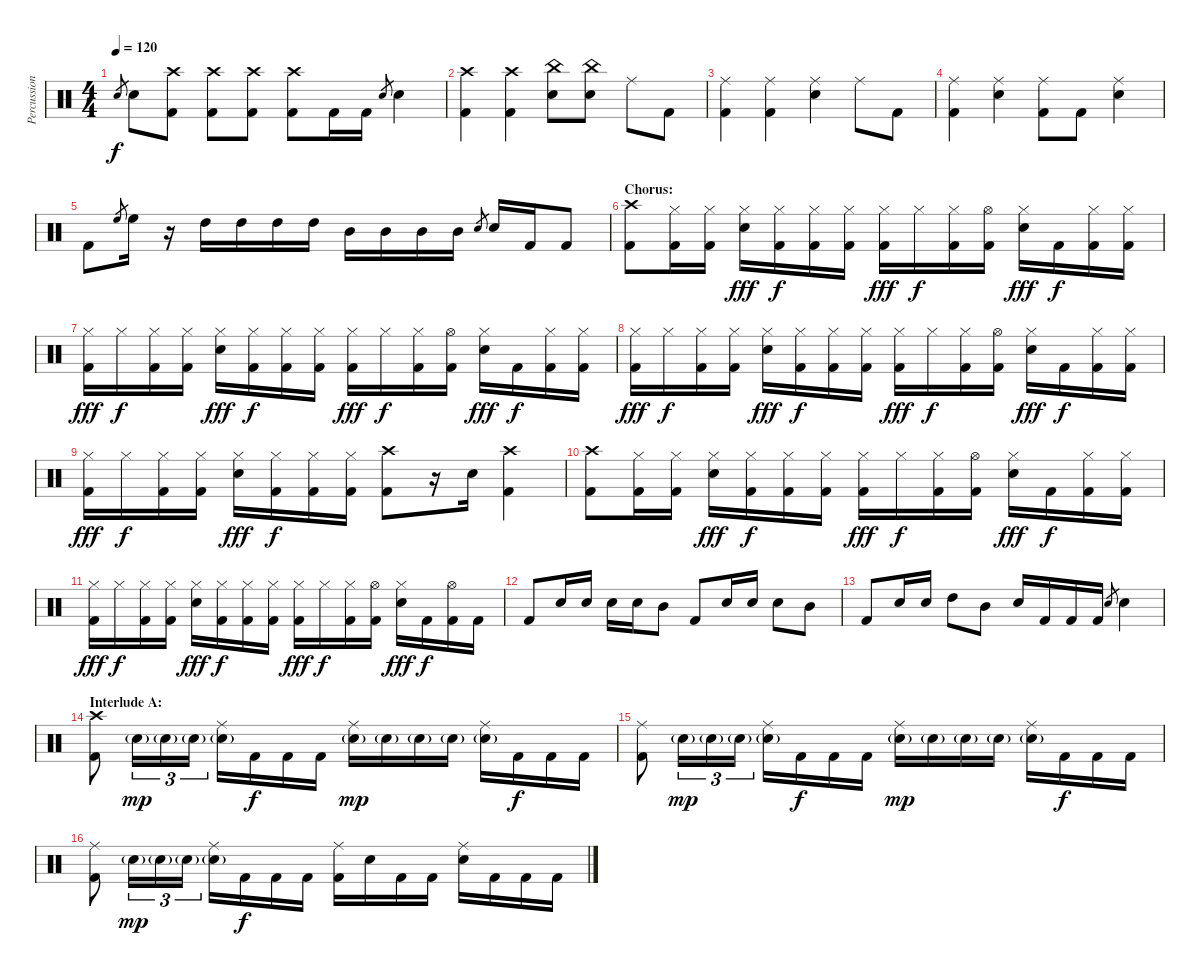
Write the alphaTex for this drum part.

\track ("Percussion" "Percussion") {instrument percussion}
\staff {score}
\articulation defaults
\ts (4 4)
\tempo 120
\clef neutral
\ks c "Electric Snare (hit)".8{gr dy f} "Electric Snare (hit)".8
("Crash high (hit)" "Kick (hit) 2").8 ("Crash high (hit)" "Kick (hit) 2").8 ("Crash high (hit)" "Kick (hit) 2").8 ("Crash high (hit)" "Kick (hit) 2").8 "Kick (hit) 2".16 "Kick (hit) 2".16 "Electric Snare (hit)".8{gr} "Electric Snare (hit)".4 |
("Crash high (hit)" "Kick (hit) 2").4 ("Crash high (hit)" "Kick (hit) 2").4 ("China (hit)" "Electric Snare (hit)").8 ("China (hit)" "Electric Snare (hit)").8 "Ride (middle)".8 "Kick (hit) 2".8 |
("Ride (middle)" "Kick (hit) 2").4 ("Ride (middle)" "Kick (hit) 2").4 ("Ride (middle)" "Electric Snare (hit)").4 "Ride (middle)".8 "Kick (hit) 2".8 |
("Ride (middle)" "Kick (hit) 2").4 ("Ride (middle)" "Electric Snare (hit)").4 ("Ride (middle)" "Kick (hit) 2").8 "Kick (hit) 2".8 ("Ride (middle)" "Electric Snare (hit)").4 |
"Kick (hit) 2".8 "High Floor Tom (hit)".8{gr} "High Floor Tom (hit)".16 r.16 "High Tom (hit)".16 "High Tom (hit)".16 "High Tom (hit)".16 "High Tom (hit)".16 "Mid Tom (hit)".16 "Mid Tom (hit)".16 "Mid Tom (hit)".16 "Mid Tom (hit)".16 "Electric Snare (hit)".8{gr} "Electric Snare (hit)".16 "Kick (hit) 2".16 "Kick (hit) 2".8 |
\section ("" "Chorus:")
("Crash high (hit)" "Kick (hit) 2").8 ("Hi-Hat (closed)" "Kick (hit) 2").16 ("Hi-Hat (closed)" "Kick (hit) 2").16 ("Hi-Hat (closed)" "Electric Snare (hit)").16{dy fff} ("Hi-Hat (closed)" "Kick (hit) 2").16{dy f} ("Hi-Hat (closed)" "Kick (hit) 2").16 ("Hi-Hat (closed)" "Kick (hit) 2").16 ("Hi-Hat (closed)" "Kick (hit) 2").16{dy fff} "Hi-Hat (closed)".16{dy f} ("Hi-Hat (closed)" "Kick (hit) 2").16 ("Hi-Hat (open)" "Kick (hit) 2").16 ("Hi-Hat (closed)" "Electric Snare (hit)").16{dy fff} "Kick (hit) 2".16{dy f} ("Hi-Hat (closed)" "Kick (hit) 2").16 ("Hi-Hat (closed)" "Kick (hit) 2").16 |
("Hi-Hat (closed)" "Kick (hit) 2").16{dy fff} "Hi-Hat (closed)".16{dy f} ("Hi-Hat (closed)" "Kick (hit) 2").16 ("Hi-Hat (closed)" "Kick (hit) 2").16 ("Hi-Hat (closed)" "Electric Snare (hit)").16{dy fff} ("Hi-Hat (closed)" "Kick (hit) 2").16{dy f} ("Hi-Hat (closed)" "Kick (hit) 2").16 ("Hi-Hat (closed)" "Kick (hit) 2").16 ("Hi-Hat (closed)" "Kick (hit) 2").16{dy fff} "Hi-Hat (closed)".16{dy f} ("Hi-Hat (closed)" "Kick (hit) 2").16 ("Hi-Hat (open)" "Kick (hit) 2").16 ("Hi-Hat (closed)" "Electric Snare (hit)").16{dy fff} "Kick (hit) 2".16{dy f} ("Hi-Hat (closed)" "Kick (hit) 2").16 ("Hi-Hat (closed)" "Kick (hit) 2").16 |
("Hi-Hat (closed)" "Kick (hit) 2").16{dy fff} "Hi-Hat (closed)".16{dy f} ("Hi-Hat (closed)" "Kick (hit) 2").16 ("Hi-Hat (closed)" "Kick (hit) 2").16 ("Hi-Hat (closed)" "Electric Snare (hit)").16{dy fff} ("Hi-Hat (closed)" "Kick (hit) 2").16{dy f} ("Hi-Hat (closed)" "Kick (hit) 2").16 ("Hi-Hat (closed)" "Kick (hit) 2").16 ("Hi-Hat (closed)" "Kick (hit) 2").16{dy fff} "Hi-Hat (closed)".16{dy f} ("Hi-Hat (closed)" "Kick (hit) 2").16 ("Hi-Hat (open)" "Kick (hit) 2").16 ("Hi-Hat (closed)" "Electric Snare (hit)").16{dy fff} "Kick (hit) 2".16{dy f} ("Hi-Hat (closed)" "Kick (hit) 2").16 ("Hi-Hat (closed)" "Kick (hit) 2").16 |
("Hi-Hat (closed)" "Kick (hit) 2").16{dy fff} "Hi-Hat (closed)".16{dy f} ("Hi-Hat (closed)" "Kick (hit) 2").16 ("Hi-Hat (closed)" "Kick (hit) 2").16 ("Hi-Hat (closed)" "Electric Snare (hit)").16{dy fff} ("Hi-Hat (closed)" "Kick (hit) 2").16{dy f} ("Hi-Hat (closed)" "Kick (hit) 2").16 ("Hi-Hat (closed)" "Kick (hit) 2").16 ("Crash high (hit)" "Kick (hit) 2").8 r.16 "Electric Snare (hit)".16 ("Crash high (hit)" "Kick (hit) 2").4 |
("Crash high (hit)" "Kick (hit) 2").8 ("Hi-Hat (closed)" "Kick (hit) 2").16 ("Hi-Hat (closed)" "Kick (hit) 2").16 ("Hi-Hat (closed)" "Electric Snare (hit)").16{dy fff} ("Hi-Hat (closed)" "Kick (hit) 2").16{dy f} ("Hi-Hat (closed)" "Kick (hit) 2").16 ("Hi-Hat (closed)" "Kick (hit) 2").16 ("Hi-Hat (closed)" "Kick (hit) 2").16{dy fff} "Hi-Hat (closed)".16{dy f} ("Hi-Hat (closed)" "Kick (hit) 2").16 ("Hi-Hat (open)" "Kick (hit) 2").16 ("Hi-Hat (closed)" "Electric Snare (hit)").16{dy fff} "Kick (hit) 2".16{dy f} ("Hi-Hat (closed)" "Kick (hit) 2").16 ("Hi-Hat (closed)" "Kick (hit) 2").16 |
("Hi-Hat (closed)" "Kick (hit) 2").16{dy fff} "Hi-Hat (closed)".16{dy f} ("Hi-Hat (closed)" "Kick (hit) 2").16 ("Hi-Hat (closed)" "Kick (hit) 2").16 ("Hi-Hat (closed)" "Electric Snare (hit)").16{dy fff} ("Hi-Hat (closed)" "Kick (hit) 2").16{dy f} ("Hi-Hat (closed)" "Kick (hit) 2").16 ("Hi-Hat (closed)" "Kick (hit) 2").16 ("Hi-Hat (closed)" "Kick (hit) 2").16{dy fff} "Hi-Hat (closed)".16{dy f} ("Hi-Hat (closed)" "Kick (hit) 2").16 ("Hi-Hat (open)" "Kick (hit) 2").16 ("Hi-Hat (closed)" "Electric Snare (hit)").16{dy fff} "Kick (hit) 2".16{dy f} ("Hi-Hat (open)" "Kick (hit) 2").16 "Kick (hit) 2".16 |
"Kick (hit) 2".8 "Electric Snare (hit)".16 "Electric Snare (hit)".16 "Electric Snare (hit)".16 "Electric Snare (hit)".16 "Mid Tom (hit)".8 "Kick (hit) 2".8 "Electric Snare (hit)".16 "Electric Snare (hit)".16 "Electric Snare (hit)".8 "Mid Tom (hit)".8 |
"Kick (hit) 2".8 "Electric Snare (hit)".16 "Electric Snare (hit)".16 "High Tom (hit)".8 "Mid Tom (hit)".8 "Electric Snare (hit)".16 "Kick (hit) 2".16 "Kick (hit) 2".16 "Kick (hit) 2".16 "Electric Snare (hit)".8{gr} "Electric Snare (hit)".4 |
\section ("" "Interlude A:")
("Crash high (hit)" "Kick (hit) 2").8 "Electric Snare (hit)"{g}.16{tu (3 2) dy mp} "Electric Snare (hit)"{g}.16{tu (3 2)} "Electric Snare (hit)"{g}.16{tu (3 2)} ("Ride (middle)" "Electric Snare (hit)"{g}).16 "Kick (hit) 2".16{dy f} "Kick (hit) 2".16 "Kick (hit) 2".16 ("Ride (middle)" "Electric Snare (hit)"{g}).16{dy mp} "Electric Snare (hit)"{g}.16 "Electric Snare (hit)"{g}.16 "Electric Snare (hit)"{g}.16 ("Ride (middle)" "Electric Snare (hit)"{g}).16 "Kick (hit) 2".16{dy f} "Kick (hit) 2".16 "Kick (hit) 2".16 |
("Ride (middle)" "Kick (hit) 2").8 "Electric Snare (hit)"{g}.16{tu (3 2) dy mp} "Electric Snare (hit)"{g}.16{tu (3 2)} "Electric Snare (hit)"{g}.16{tu (3 2)} ("Ride (middle)" "Electric Snare (hit)"{g}).16 "Kick (hit) 2".16{dy f} "Kick (hit) 2".16 "Kick (hit) 2".16 ("Ride (middle)" "Electric Snare (hit)"{g}).16{dy mp} "Electric Snare (hit)"{g}.16 "Electric Snare (hit)"{g}.16 "Electric Snare (hit)"{g}.16 ("Ride (middle)" "Electric Snare (hit)"{g}).16 "Kick (hit) 2".16{dy f} "Kick (hit) 2".16 "Kick (hit) 2".16 |
("Ride (middle)" "Kick (hit) 2").8 "Electric Snare (hit)"{g}.16{tu (3 2) dy mp} "Electric Snare (hit)"{g}.16{tu (3 2)} "Electric Snare (hit)"{g}.16{tu (3 2)} ("Ride (middle)" "Electric Snare (hit)"{g}).16 "Kick (hit) 2".16{dy f} "Kick (hit) 2".16 "Kick (hit) 2".16 ("Ride (middle)" "Kick (hit) 2").16 "Electric Snare (hit)".16 "Kick (hit) 2".16 "Kick (hit) 2".16 ("Ride (middle)" "Electric Snare (hit)").16 "Kick (hit) 2".16 "Kick (hit) 2".16 "Kick (hit) 2".16
